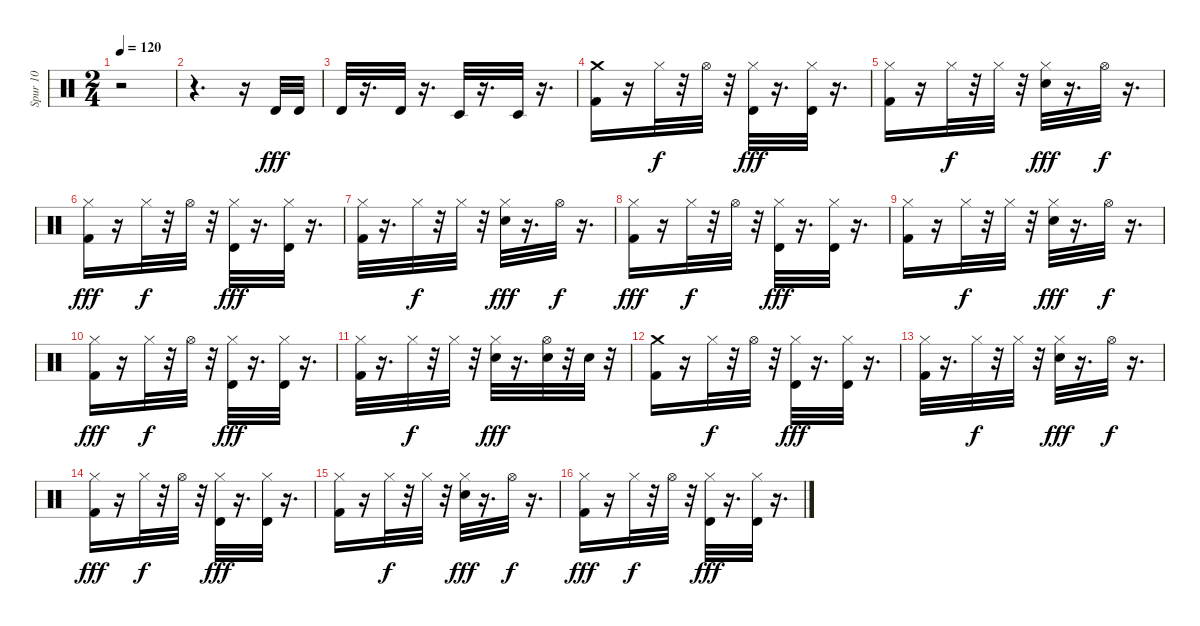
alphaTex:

\track ("Spur 10" "Spur 10") {instrument percussion}
\staff {score}
\articulation defaults
\ts (2 4)
\tempo 120
\clef neutral
\ks c
r.2{dy fff} |
r.4{d} r.16 "Timbale high (hit)".32 "Timbale high (hit)".32 |
"Timbale high (hit)".32 r.16{d} "Timbale high (hit)".32 r.16{d} "Timbale low (hit)".32 r.16{d} "Timbale low (hit)".32 r.16{d} |
("Kick (hit) 2" "Crash medium (hit)").16 r.16 "Hi-Hat (closed)".32{dy f} r.32 "Hi-Hat (open)".32 r.32 ("Timbale high (hit)" "Hi-Hat (closed)").32{dy fff} r.16{d} ("Timbale high (hit)" "Hi-Hat (closed)").32 r.16{d} |
("Kick (hit) 2" "Hi-Hat (closed)").16 r.16 "Hi-Hat (closed)".32{dy f} r.32 "Hi-Hat (closed)".32 r.32 ("Electric Snare (hit)" "Hi-Hat (closed)").32{dy fff} r.16{d} "Hi-Hat (open)".32{dy f} r.16{d} |
("Kick (hit) 2" "Hi-Hat (closed)").16{dy fff} r.16 "Hi-Hat (closed)".32{dy f} r.32 "Hi-Hat (open)".32 r.32 ("Timbale high (hit)" "Hi-Hat (closed)").32{dy fff} r.16{d} ("Timbale high (hit)" "Hi-Hat (closed)").32 r.16{d} |
("Kick (hit) 2" "Hi-Hat (closed)").32 r.16{d} "Hi-Hat (closed)".32{dy f} r.32 "Hi-Hat (closed)".32 r.32 ("Electric Snare (hit)" "Hi-Hat (closed)").32{dy fff} r.16{d} "Hi-Hat (open)".32{dy f} r.16{d} |
("Kick (hit) 2" "Hi-Hat (closed)").16{dy fff} r.16 "Hi-Hat (closed)".32{dy f} r.32 "Hi-Hat (open)".32 r.32 ("Timbale high (hit)" "Hi-Hat (closed)").32{dy fff} r.16{d} ("Timbale high (hit)" "Hi-Hat (closed)").32 r.16{d} |
("Kick (hit) 2" "Hi-Hat (closed)").16 r.16 "Hi-Hat (closed)".32{dy f} r.32 "Hi-Hat (closed)".32 r.32 ("Electric Snare (hit)" "Hi-Hat (closed)").32{dy fff} r.16{d} "Hi-Hat (open)".32{dy f} r.16{d} |
("Kick (hit) 2" "Hi-Hat (closed)").16{dy fff} r.16 "Hi-Hat (closed)".32{dy f} r.32 "Hi-Hat (open)".32 r.32 ("Timbale high (hit)" "Hi-Hat (closed)").32{dy fff} r.16{d} ("Timbale high (hit)" "Hi-Hat (closed)").32 r.16{d} |
("Kick (hit) 2" "Hi-Hat (closed)").32 r.16{d} "Hi-Hat (closed)".32{dy f} r.32 "Hi-Hat (closed)".32 r.32 ("Electric Snare (hit)" "Hi-Hat (closed)").32{dy fff} r.16{d} ("Electric Snare (hit)" "Hi-Hat (open)").32 r.32 "Electric Snare (hit)".32 r.32 |
("Kick (hit) 2" "Crash medium (hit)").16 r.16 "Hi-Hat (closed)".32{dy f} r.32 "Hi-Hat (open)".32 r.32 ("Timbale high (hit)" "Hi-Hat (closed)").32{dy fff} r.16{d} ("Timbale high (hit)" "Hi-Hat (closed)").32 r.16{d} |
("Kick (hit) 2" "Hi-Hat (closed)").32 r.16{d} "Hi-Hat (closed)".32{dy f} r.32 "Hi-Hat (closed)".32 r.32 ("Electric Snare (hit)" "Hi-Hat (closed)").32{dy fff} r.16{d} "Hi-Hat (open)".32{dy f} r.16{d} |
("Kick (hit) 2" "Hi-Hat (closed)").16{dy fff} r.16 "Hi-Hat (closed)".32{dy f} r.32 "Hi-Hat (open)".32 r.32 ("Timbale high (hit)" "Hi-Hat (closed)").32{dy fff} r.16{d} ("Timbale high (hit)" "Hi-Hat (closed)").32 r.16{d} |
("Kick (hit) 2" "Hi-Hat (closed)").16 r.16 "Hi-Hat (closed)".32{dy f} r.32 "Hi-Hat (closed)".32 r.32 ("Electric Snare (hit)" "Hi-Hat (closed)").32{dy fff} r.16{d} "Hi-Hat (open)".32{dy f} r.16{d} |
("Kick (hit) 2" "Hi-Hat (closed)").16{dy fff} r.16 "Hi-Hat (closed)".32{dy f} r.32 "Hi-Hat (open)".32 r.32 ("Timbale high (hit)" "Hi-Hat (closed)").32{dy fff} r.16{d} ("Timbale high (hit)" "Hi-Hat (closed)").32 r.16{d}
